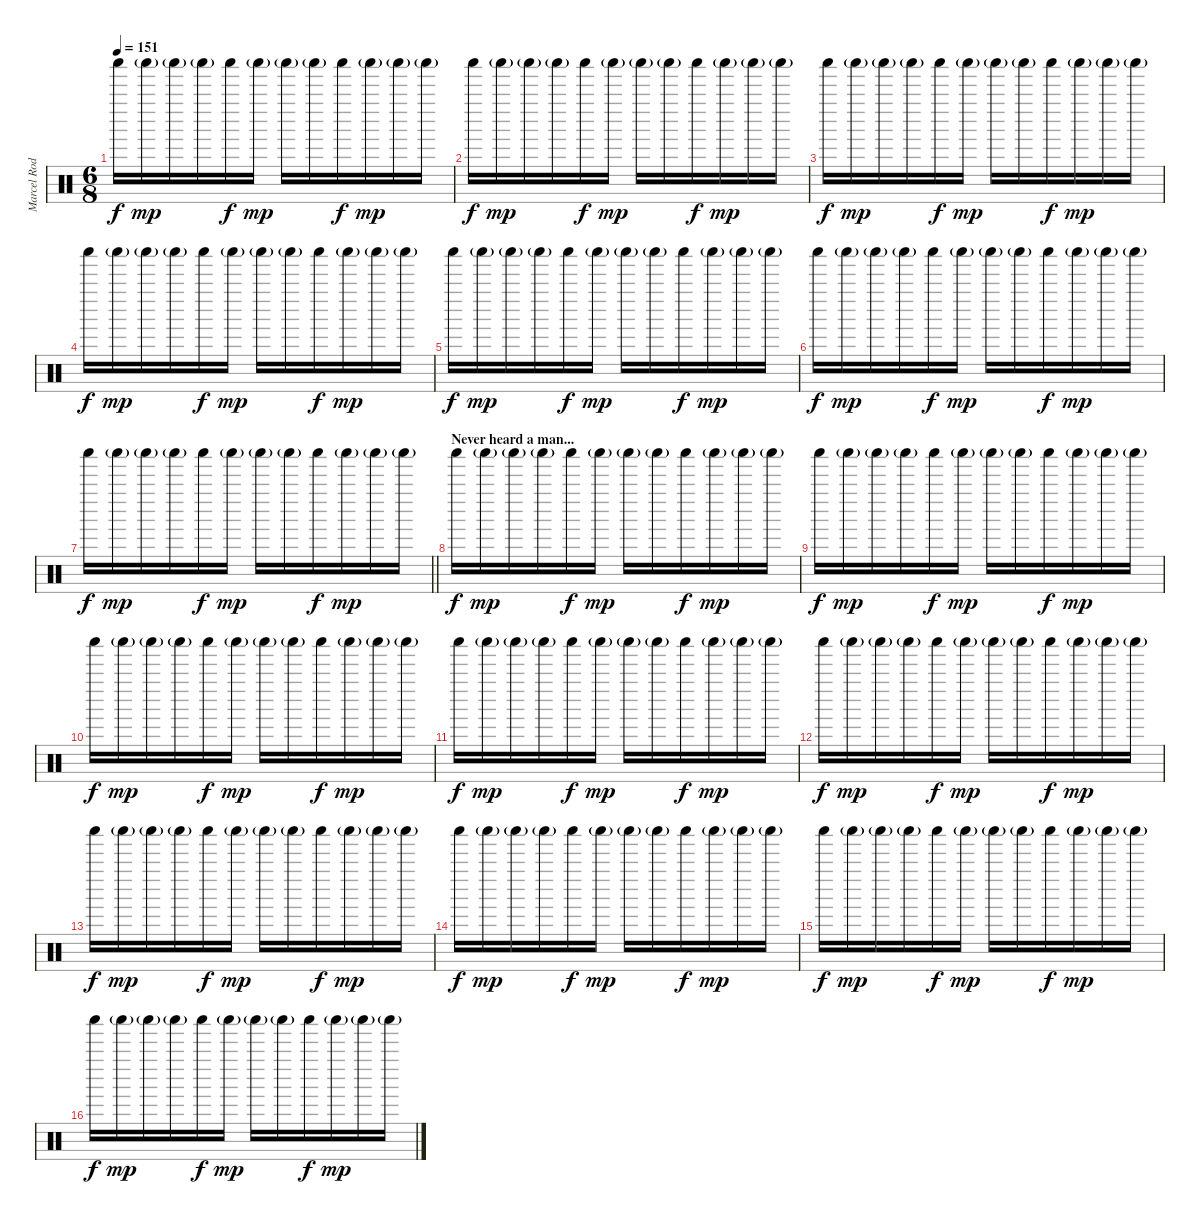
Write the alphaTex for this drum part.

\track ("Marcel Rodriguez-Lopez" "Marcel Rod") {instrument percussion}
\staff {score}
\articulation defaults
\ts (6 8)
\tempo 151
\clef neutral
\ks c "Shaker (hit)".16{dy f} "Shaker (hit)"{g}.16{dy mp} "Shaker (hit)"{g}.16 "Shaker (hit)"{g}.16 "Shaker (hit)".16{dy f} "Shaker (hit)"{g}.16{dy mp} "Shaker (hit)"{g}.16 "Shaker (hit)"{g}.16 "Shaker (hit)".16{dy f} "Shaker (hit)"{g}.16{dy mp} "Shaker (hit)"{g}.16 "Shaker (hit)"{g}.16
|
"Shaker (hit)".16{dy f} "Shaker (hit)"{g}.16{dy mp} "Shaker (hit)"{g}.16 "Shaker (hit)"{g}.16 "Shaker (hit)".16{dy f} "Shaker (hit)"{g}.16{dy mp} "Shaker (hit)"{g}.16 "Shaker (hit)"{g}.16 "Shaker (hit)".16{dy f} "Shaker (hit)"{g}.16{dy mp} "Shaker (hit)"{g}.16 "Shaker (hit)"{g}.16 |
"Shaker (hit)".16{dy f} "Shaker (hit)"{g}.16{dy mp} "Shaker (hit)"{g}.16 "Shaker (hit)"{g}.16 "Shaker (hit)".16{dy f} "Shaker (hit)"{g}.16{dy mp} "Shaker (hit)"{g}.16 "Shaker (hit)"{g}.16 "Shaker (hit)".16{dy f} "Shaker (hit)"{g}.16{dy mp} "Shaker (hit)"{g}.16 "Shaker (hit)"{g}.16 |
"Shaker (hit)".16{dy f} "Shaker (hit)"{g}.16{dy mp} "Shaker (hit)"{g}.16 "Shaker (hit)"{g}.16 "Shaker (hit)".16{dy f} "Shaker (hit)"{g}.16{dy mp} "Shaker (hit)"{g}.16 "Shaker (hit)"{g}.16 "Shaker (hit)".16{dy f} "Shaker (hit)"{g}.16{dy mp} "Shaker (hit)"{g}.16 "Shaker (hit)"{g}.16 |
"Shaker (hit)".16{dy f} "Shaker (hit)"{g}.16{dy mp} "Shaker (hit)"{g}.16 "Shaker (hit)"{g}.16 "Shaker (hit)".16{dy f} "Shaker (hit)"{g}.16{dy mp} "Shaker (hit)"{g}.16 "Shaker (hit)"{g}.16 "Shaker (hit)".16{dy f} "Shaker (hit)"{g}.16{dy mp} "Shaker (hit)"{g}.16 "Shaker (hit)"{g}.16 |
"Shaker (hit)".16{dy f} "Shaker (hit)"{g}.16{dy mp} "Shaker (hit)"{g}.16 "Shaker (hit)"{g}.16 "Shaker (hit)".16{dy f} "Shaker (hit)"{g}.16{dy mp} "Shaker (hit)"{g}.16 "Shaker (hit)"{g}.16 "Shaker (hit)".16{dy f} "Shaker (hit)"{g}.16{dy mp} "Shaker (hit)"{g}.16 "Shaker (hit)"{g}.16 |
\barLineRight lightlight "Shaker (hit)".16{dy f} "Shaker (hit)"{g}.16{dy mp} "Shaker (hit)"{g}.16 "Shaker (hit)"{g}.16 "Shaker (hit)".16{dy f} "Shaker (hit)"{g}.16{dy mp} "Shaker (hit)"{g}.16 "Shaker (hit)"{g}.16 "Shaker (hit)".16{dy f} "Shaker (hit)"{g}.16{dy mp} "Shaker (hit)"{g}.16 "Shaker (hit)"{g}.16
|
\section ("" "Never heard a man...")
"Shaker (hit)".16{dy f} "Shaker (hit)"{g}.16{dy mp} "Shaker (hit)"{g}.16 "Shaker (hit)"{g}.16 "Shaker (hit)".16{dy f} "Shaker (hit)"{g}.16{dy mp} "Shaker (hit)"{g}.16 "Shaker (hit)"{g}.16 "Shaker (hit)".16{dy f} "Shaker (hit)"{g}.16{dy mp} "Shaker (hit)"{g}.16 "Shaker (hit)"{g}.16 |
"Shaker (hit)".16{dy f} "Shaker (hit)"{g}.16{dy mp} "Shaker (hit)"{g}.16 "Shaker (hit)"{g}.16 "Shaker (hit)".16{dy f} "Shaker (hit)"{g}.16{dy mp} "Shaker (hit)"{g}.16 "Shaker (hit)"{g}.16 "Shaker (hit)".16{dy f} "Shaker (hit)"{g}.16{dy mp} "Shaker (hit)"{g}.16 "Shaker (hit)"{g}.16 |
"Shaker (hit)".16{dy f} "Shaker (hit)"{g}.16{dy mp} "Shaker (hit)"{g}.16 "Shaker (hit)"{g}.16 "Shaker (hit)".16{dy f} "Shaker (hit)"{g}.16{dy mp} "Shaker (hit)"{g}.16 "Shaker (hit)"{g}.16 "Shaker (hit)".16{dy f} "Shaker (hit)"{g}.16{dy mp} "Shaker (hit)"{g}.16 "Shaker (hit)"{g}.16 |
"Shaker (hit)".16{dy f} "Shaker (hit)"{g}.16{dy mp} "Shaker (hit)"{g}.16 "Shaker (hit)"{g}.16 "Shaker (hit)".16{dy f} "Shaker (hit)"{g}.16{dy mp} "Shaker (hit)"{g}.16 "Shaker (hit)"{g}.16 "Shaker (hit)".16{dy f} "Shaker (hit)"{g}.16{dy mp} "Shaker (hit)"{g}.16 "Shaker (hit)"{g}.16 |
"Shaker (hit)".16{dy f} "Shaker (hit)"{g}.16{dy mp} "Shaker (hit)"{g}.16 "Shaker (hit)"{g}.16 "Shaker (hit)".16{dy f} "Shaker (hit)"{g}.16{dy mp} "Shaker (hit)"{g}.16 "Shaker (hit)"{g}.16 "Shaker (hit)".16{dy f} "Shaker (hit)"{g}.16{dy mp} "Shaker (hit)"{g}.16 "Shaker (hit)"{g}.16 |
"Shaker (hit)".16{dy f} "Shaker (hit)"{g}.16{dy mp} "Shaker (hit)"{g}.16 "Shaker (hit)"{g}.16 "Shaker (hit)".16{dy f} "Shaker (hit)"{g}.16{dy mp} "Shaker (hit)"{g}.16 "Shaker (hit)"{g}.16 "Shaker (hit)".16{dy f} "Shaker (hit)"{g}.16{dy mp} "Shaker (hit)"{g}.16 "Shaker (hit)"{g}.16 |
"Shaker (hit)".16{dy f} "Shaker (hit)"{g}.16{dy mp} "Shaker (hit)"{g}.16 "Shaker (hit)"{g}.16 "Shaker (hit)".16{dy f} "Shaker (hit)"{g}.16{dy mp} "Shaker (hit)"{g}.16 "Shaker (hit)"{g}.16 "Shaker (hit)".16{dy f} "Shaker (hit)"{g}.16{dy mp} "Shaker (hit)"{g}.16 "Shaker (hit)"{g}.16 |
"Shaker (hit)".16{dy f} "Shaker (hit)"{g}.16{dy mp} "Shaker (hit)"{g}.16 "Shaker (hit)"{g}.16 "Shaker (hit)".16{dy f} "Shaker (hit)"{g}.16{dy mp} "Shaker (hit)"{g}.16 "Shaker (hit)"{g}.16 "Shaker (hit)".16{dy f} "Shaker (hit)"{g}.16{dy mp} "Shaker (hit)"{g}.16 "Shaker (hit)"{g}.16 |
"Shaker (hit)".16{dy f} "Shaker (hit)"{g}.16{dy mp} "Shaker (hit)"{g}.16 "Shaker (hit)"{g}.16 "Shaker (hit)".16{dy f} "Shaker (hit)"{g}.16{dy mp} "Shaker (hit)"{g}.16 "Shaker (hit)"{g}.16 "Shaker (hit)".16{dy f} "Shaker (hit)"{g}.16{dy mp} "Shaker (hit)"{g}.16 "Shaker (hit)"{g}.16
